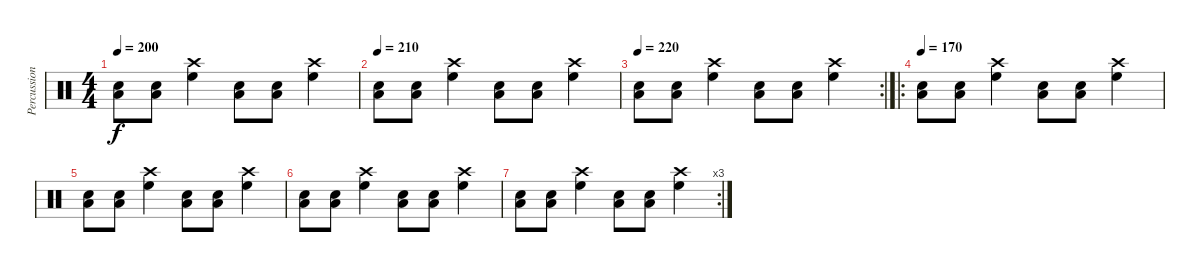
\track ("Percussion" "Percussion") {instrument percussion}
\staff {score}
\articulation defaults
\ts (4 4)
\tempo 200
\clef neutral
\ks c
("Low Floor Tom (hit)" "Electric Snare (hit)").8{dy f} ("Low Floor Tom (hit)" "Electric Snare (hit)").8 ("High Floor Tom (hit)" "Crash high (hit)").4 ("Low Floor Tom (hit)" "Electric Snare (hit)").8 ("Low Floor Tom (hit)" "Electric Snare (hit)").8 ("High Floor Tom (hit)" "Crash high (hit)").4 |
\tempo 210
("Low Floor Tom (hit)" "Electric Snare (hit)").8 ("Low Floor Tom (hit)" "Electric Snare (hit)").8 ("High Floor Tom (hit)" "Crash high (hit)").4 ("Low Floor Tom (hit)" "Electric Snare (hit)").8 ("Low Floor Tom (hit)" "Electric Snare (hit)").8 ("High Floor Tom (hit)" "Crash high (hit)").4 |
\rc 2
\tempo 220
("Low Floor Tom (hit)" "Electric Snare (hit)").8 ("Low Floor Tom (hit)" "Electric Snare (hit)").8 ("High Floor Tom (hit)" "Crash high (hit)").4 ("Low Floor Tom (hit)" "Electric Snare (hit)").8 ("Low Floor Tom (hit)" "Electric Snare (hit)").8 ("High Floor Tom (hit)" "Crash high (hit)").4 |
\ro
\tempo 170
("Low Floor Tom (hit)" "Electric Snare (hit)").8 ("Low Floor Tom (hit)" "Electric Snare (hit)").8 ("High Floor Tom (hit)" "Crash high (hit)").4 ("Low Floor Tom (hit)" "Electric Snare (hit)").8 ("Low Floor Tom (hit)" "Electric Snare (hit)").8 ("High Floor Tom (hit)" "Crash high (hit)").4 |
("Low Floor Tom (hit)" "Electric Snare (hit)").8 ("Low Floor Tom (hit)" "Electric Snare (hit)").8 ("High Floor Tom (hit)" "Crash high (hit)").4 ("Low Floor Tom (hit)" "Electric Snare (hit)").8 ("Low Floor Tom (hit)" "Electric Snare (hit)").8 ("High Floor Tom (hit)" "Crash high (hit)").4 |
("Low Floor Tom (hit)" "Electric Snare (hit)").8 ("Low Floor Tom (hit)" "Electric Snare (hit)").8 ("High Floor Tom (hit)" "Crash high (hit)").4 ("Low Floor Tom (hit)" "Electric Snare (hit)").8 ("Low Floor Tom (hit)" "Electric Snare (hit)").8 ("High Floor Tom (hit)" "Crash high (hit)").4 |
\rc 3
("Low Floor Tom (hit)" "Electric Snare (hit)").8 ("Low Floor Tom (hit)" "Electric Snare (hit)").8 ("High Floor Tom (hit)" "Crash high (hit)").4 ("Low Floor Tom (hit)" "Electric Snare (hit)").8 ("Low Floor Tom (hit)" "Electric Snare (hit)").8 ("High Floor Tom (hit)" "Crash high (hit)").4
